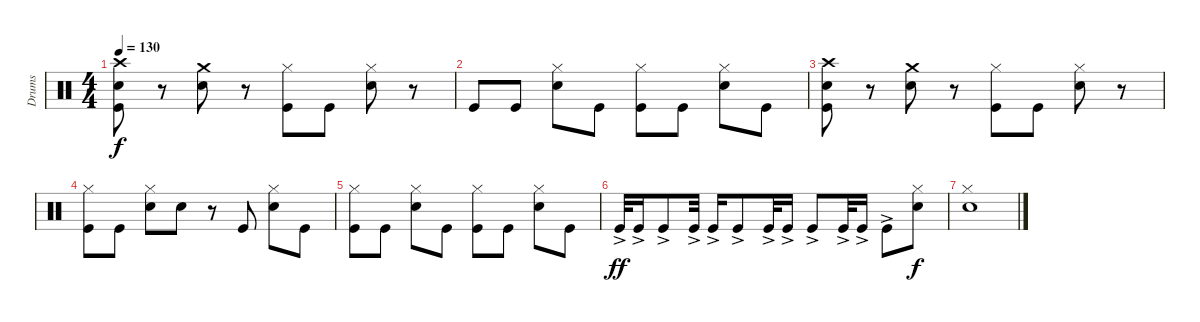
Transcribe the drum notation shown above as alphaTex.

\track ("Drums" "Drums") {instrument percussion}
\staff {score}
\articulation defaults
\ts (4 4)
\tempo 130
\clef neutral
\ks c
("Crash high (hit)" "Electric Snare (hit)" "Kick (hit)").8{dy f} r.8 ("Crash medium (hit)" "Electric Snare (hit)").8 r.8 ("Hi-Hat (closed)" "Kick (hit)").8 "Kick (hit)".8 ("Hi-Hat (closed)" "Electric Snare (hit)").8 r.8 |
"Kick (hit)".8 "Kick (hit)".8 ("Hi-Hat (closed)" "Electric Snare (hit)").8 "Kick (hit)".8 ("Hi-Hat (closed)" "Kick (hit)").8 "Kick (hit)".8 ("Hi-Hat (closed)" "Electric Snare (hit)").8 "Kick (hit)".8 |
("Crash high (hit)" "Kick (hit)" "Electric Snare (hit)").8 r.8 ("Crash medium (hit)" "Electric Snare (hit)").8 r.8 ("Hi-Hat (closed)" "Kick (hit)").8 "Kick (hit)".8 ("Hi-Hat (closed)" "Electric Snare (hit)").8 r.8 |
("Hi-Hat (closed)" "Kick (hit)").8 "Kick (hit)".8 ("Hi-Hat (closed)" "Electric Snare (hit)").8 "Electric Snare (hit)".8 r.8 "Kick (hit)".8 ("Hi-Hat (closed)" "Electric Snare (hit)").8 "Kick (hit)".8 |
("Hi-Hat (closed)" "Kick (hit)").8 "Kick (hit)".8 ("Hi-Hat (closed)" "Electric Snare (hit)").8 "Kick (hit)".8 ("Hi-Hat (closed)" "Kick (hit)").8 "Kick (hit)".8 ("Hi-Hat (closed)" "Electric Snare (hit)").8 "Kick (hit)".8 |
"Kick (hit)"{ac}.32{dy ff} "Kick (hit)"{ac}.16 "Kick (hit)"{ac}.8 "Kick (hit)"{ac}.32 "Kick (hit)"{ac}.16 "Kick (hit)"{ac}.8 "Kick (hit)"{ac}.32 "Kick (hit)"{ac}.16 "Kick (hit)"{ac}.8 "Kick (hit)"{ac}.32 "Kick (hit)"{ac}.16 "Kick (hit)"{ac}.8 ("Hi-Hat (closed)" "Electric Snare (hit)").8{dy f} |
("Hi-Hat (closed)" "Electric Snare (hit)").1
